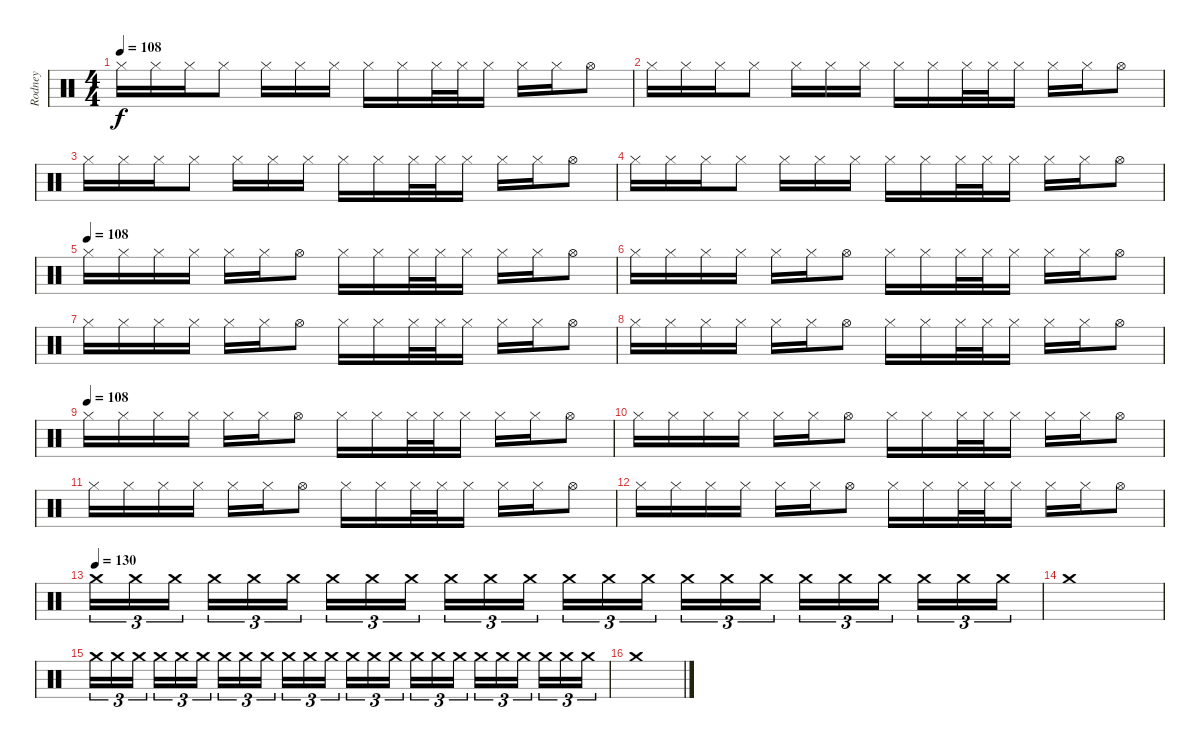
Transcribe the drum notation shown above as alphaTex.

\track ("Rodney" "Rodney") {instrument percussion}
\staff {score}
\articulation defaults
\ts (4 4)
\tempo 108
\clef neutral
\ks c "Hi-Hat (closed)".16{dy f} "Hi-Hat (closed)".16 "Hi-Hat (closed)".16 "Hi-Hat (closed)".8 "Hi-Hat (closed)".16 "Hi-Hat (closed)".16 "Hi-Hat (closed)".16 "Hi-Hat (closed)".16 "Hi-Hat (closed)".16 "Hi-Hat (closed)".32 "Hi-Hat (closed)".32 "Hi-Hat (closed)".16 "Hi-Hat (closed)".16 "Hi-Hat (closed)".16 "Hi-Hat (open)".8
|
"Hi-Hat (closed)".16 "Hi-Hat (closed)".16 "Hi-Hat (closed)".16 "Hi-Hat (closed)".8 "Hi-Hat (closed)".16 "Hi-Hat (closed)".16 "Hi-Hat (closed)".16 "Hi-Hat (closed)".16 "Hi-Hat (closed)".16 "Hi-Hat (closed)".32 "Hi-Hat (closed)".32 "Hi-Hat (closed)".16 "Hi-Hat (closed)".16 "Hi-Hat (closed)".16 "Hi-Hat (open)".8 |
"Hi-Hat (closed)".16 "Hi-Hat (closed)".16 "Hi-Hat (closed)".16 "Hi-Hat (closed)".8 "Hi-Hat (closed)".16 "Hi-Hat (closed)".16 "Hi-Hat (closed)".16 "Hi-Hat (closed)".16 "Hi-Hat (closed)".16 "Hi-Hat (closed)".32 "Hi-Hat (closed)".32 "Hi-Hat (closed)".16 "Hi-Hat (closed)".16 "Hi-Hat (closed)".16 "Hi-Hat (open)".8 |
"Hi-Hat (closed)".16 "Hi-Hat (closed)".16 "Hi-Hat (closed)".16 "Hi-Hat (closed)".8 "Hi-Hat (closed)".16 "Hi-Hat (closed)".16 "Hi-Hat (closed)".16 "Hi-Hat (closed)".16 "Hi-Hat (closed)".16 "Hi-Hat (closed)".32 "Hi-Hat (closed)".32 "Hi-Hat (closed)".16 "Hi-Hat (closed)".16 "Hi-Hat (closed)".16 "Hi-Hat (open)".8 |
\tempo (108)
"Hi-Hat (closed)".16 "Hi-Hat (closed)".16 "Hi-Hat (closed)".16 "Hi-Hat (closed)".16 "Hi-Hat (closed)".16 "Hi-Hat (closed)".16 "Hi-Hat (open)".8 "Hi-Hat (closed)".16 "Hi-Hat (closed)".16 "Hi-Hat (closed)".32 "Hi-Hat (closed)".32 "Hi-Hat (closed)".16 "Hi-Hat (closed)".16 "Hi-Hat (closed)".16 "Hi-Hat (open)".8 |
"Hi-Hat (closed)".16 "Hi-Hat (closed)".16 "Hi-Hat (closed)".16 "Hi-Hat (closed)".16 "Hi-Hat (closed)".16 "Hi-Hat (closed)".16 "Hi-Hat (open)".8 "Hi-Hat (closed)".16 "Hi-Hat (closed)".16 "Hi-Hat (closed)".32 "Hi-Hat (closed)".32 "Hi-Hat (closed)".16 "Hi-Hat (closed)".16 "Hi-Hat (closed)".16 "Hi-Hat (open)".8 |
"Hi-Hat (closed)".16 "Hi-Hat (closed)".16 "Hi-Hat (closed)".16 "Hi-Hat (closed)".16 "Hi-Hat (closed)".16 "Hi-Hat (closed)".16 "Hi-Hat (open)".8 "Hi-Hat (closed)".16 "Hi-Hat (closed)".16 "Hi-Hat (closed)".32 "Hi-Hat (closed)".32 "Hi-Hat (closed)".16 "Hi-Hat (closed)".16 "Hi-Hat (closed)".16 "Hi-Hat (open)".8 |
"Hi-Hat (closed)".16 "Hi-Hat (closed)".16 "Hi-Hat (closed)".16 "Hi-Hat (closed)".16 "Hi-Hat (closed)".16 "Hi-Hat (closed)".16 "Hi-Hat (open)".8 "Hi-Hat (closed)".16 "Hi-Hat (closed)".16 "Hi-Hat (closed)".32 "Hi-Hat (closed)".32 "Hi-Hat (closed)".16 "Hi-Hat (closed)".16 "Hi-Hat (closed)".16 "Hi-Hat (open)".8 |
\tempo (108)
"Hi-Hat (closed)".16 "Hi-Hat (closed)".16 "Hi-Hat (closed)".16 "Hi-Hat (closed)".16 "Hi-Hat (closed)".16 "Hi-Hat (closed)".16 "Hi-Hat (open)".8 "Hi-Hat (closed)".16 "Hi-Hat (closed)".16 "Hi-Hat (closed)".32 "Hi-Hat (closed)".32 "Hi-Hat (closed)".16 "Hi-Hat (closed)".16 "Hi-Hat (closed)".16 "Hi-Hat (open)".8 |
"Hi-Hat (closed)".16 "Hi-Hat (closed)".16 "Hi-Hat (closed)".16 "Hi-Hat (closed)".16 "Hi-Hat (closed)".16 "Hi-Hat (closed)".16 "Hi-Hat (open)".8 "Hi-Hat (closed)".16 "Hi-Hat (closed)".16 "Hi-Hat (closed)".32 "Hi-Hat (closed)".32 "Hi-Hat (closed)".16 "Hi-Hat (closed)".16 "Hi-Hat (closed)".16 "Hi-Hat (open)".8 |
"Hi-Hat (closed)".16 "Hi-Hat (closed)".16 "Hi-Hat (closed)".16 "Hi-Hat (closed)".16 "Hi-Hat (closed)".16 "Hi-Hat (closed)".16 "Hi-Hat (open)".8 "Hi-Hat (closed)".16 "Hi-Hat (closed)".16 "Hi-Hat (closed)".32 "Hi-Hat (closed)".32 "Hi-Hat (closed)".16 "Hi-Hat (closed)".16 "Hi-Hat (closed)".16 "Hi-Hat (open)".8 |
"Hi-Hat (closed)".16 "Hi-Hat (closed)".16 "Hi-Hat (closed)".16 "Hi-Hat (closed)".16 "Hi-Hat (closed)".16 "Hi-Hat (closed)".16 "Hi-Hat (open)".8 "Hi-Hat (closed)".16 "Hi-Hat (closed)".16 "Hi-Hat (closed)".32 "Hi-Hat (closed)".32 "Hi-Hat (closed)".16 "Hi-Hat (closed)".16 "Hi-Hat (closed)".16 "Hi-Hat (open)".8{volume 0} |
\tempo (130)
"Crash medium (hit)".16{tu (3 2) volume 16} "Crash medium (hit)".16{tu (3 2)} "Crash medium (hit)".16{tu (3 2)} "Crash medium (hit)".16{tu (3 2)} "Crash medium (hit)".16{tu (3 2)} "Crash medium (hit)".16{tu (3 2)} "Crash medium (hit)".16{tu (3 2)} "Crash medium (hit)".16{tu (3 2)} "Crash medium (hit)".16{tu (3 2)} "Crash medium (hit)".16{tu (3 2)} "Crash medium (hit)".16{tu (3 2)} "Crash medium (hit)".16{tu (3 2)} "Crash medium (hit)".16{tu (3 2)} "Crash medium (hit)".16{tu (3 2)} "Crash medium (hit)".16{tu (3 2)} "Crash medium (hit)".16{tu (3 2)} "Crash medium (hit)".16{tu (3 2)} "Crash medium (hit)".16{tu (3 2)} "Crash medium (hit)".16{tu (3 2)} "Crash medium (hit)".16{tu (3 2)} "Crash medium (hit)".16{tu (3 2)} "Crash medium (hit)".16{tu (3 2)} "Crash medium (hit)".16{tu (3 2)} "Crash medium (hit)".16{tu (3 2)} |
"Crash medium (hit)".1{volume 0} |
"Crash medium (hit)".16{tu (3 2) volume 16} "Crash medium (hit)".16{tu (3 2)} "Crash medium (hit)".16{tu (3 2)} "Crash medium (hit)".16{tu (3 2)} "Crash medium (hit)".16{tu (3 2)} "Crash medium (hit)".16{tu (3 2)} "Crash medium (hit)".16{tu (3 2)} "Crash medium (hit)".16{tu (3 2)} "Crash medium (hit)".16{tu (3 2)} "Crash medium (hit)".16{tu (3 2)} "Crash medium (hit)".16{tu (3 2)} "Crash medium (hit)".16{tu (3 2)} "Crash medium (hit)".16{tu (3 2)} "Crash medium (hit)".16{tu (3 2)} "Crash medium (hit)".16{tu (3 2)} "Crash medium (hit)".16{tu (3 2)} "Crash medium (hit)".16{tu (3 2)} "Crash medium (hit)".16{tu (3 2)} "Crash medium (hit)".16{tu (3 2)} "Crash medium (hit)".16{tu (3 2)} "Crash medium (hit)".16{tu (3 2)} "Crash medium (hit)".16{tu (3 2)} "Crash medium (hit)".16{tu (3 2)} "Crash medium (hit)".16{tu (3 2)} |
"Crash medium (hit)".1{volume 0}
